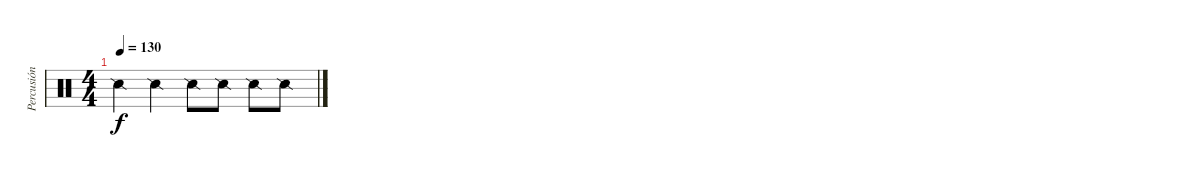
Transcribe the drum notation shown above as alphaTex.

\track ("Percusión" "Percusión") {instrument percussion}
\staff {score}
\articulation defaults
\ts (4 4)
\tempo 130
\clef neutral
\ks c "Snare (side stick) 2".4{dy f} "Snare (side stick) 2".4 "Snare (side stick) 2".8 "Snare (side stick) 2".8 "Snare (side stick) 2".8 "Snare (side stick) 2".8
